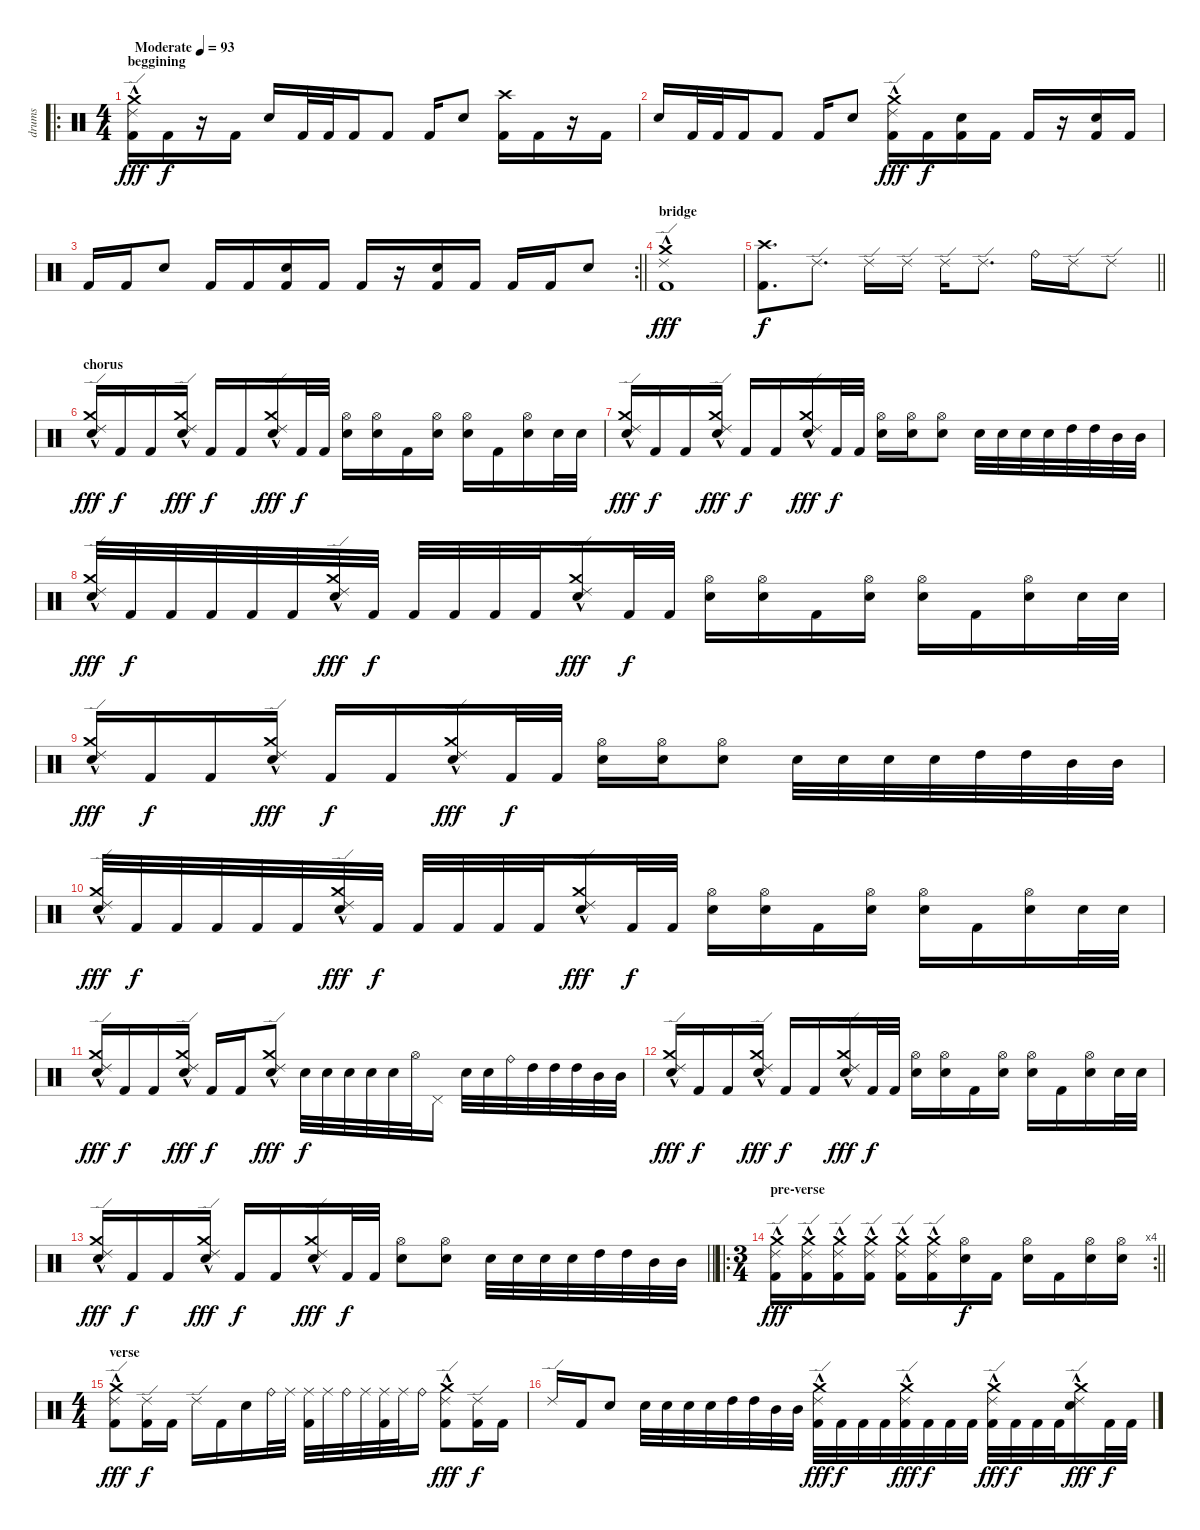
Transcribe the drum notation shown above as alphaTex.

\track ("drums" "drums") {instrument percussion}
\staff {score}
\articulation defaults
\ro
\ts (4 4)
\section ("" "beggining")
\tempo (93 "Moderate")
\clef neutral
\ks c
("Kick (hit) 2" "Ride (edge) 2"{hac} "Crash medium (hit)").16{dy fff} "Kick (hit) 2".16{dy f} r.16 "Kick (hit) 2".16 "Electric Snare (hit)".16 "Kick (hit) 2".32 "Kick (hit) 2".32 "Kick (hit) 2".16 "Kick (hit) 2".8 "Kick (hit) 2".16 "Electric Snare (hit)".8 ("Kick (hit) 2" "Crash high (hit)").16 "Kick (hit) 2".16 r.16 "Kick (hit) 2".16 |
"Electric Snare (hit)".16 "Kick (hit) 2".32 "Kick (hit) 2".32 "Kick (hit) 2".16 "Kick (hit) 2".8 "Kick (hit) 2".16 "Electric Snare (hit)".8 ("Kick (hit) 2" "Ride (edge) 2"{hac} "Crash medium (hit)").16{dy fff} "Kick (hit) 2".16{dy f} ("Kick (hit) 2" "Electric Snare (hit)").16 "Kick (hit) 2".16 "Kick (hit) 2".16 r.16 ("Kick (hit) 2" "Electric Snare (hit)").16 "Kick (hit) 2".16 |
\rc 2
\barLineRight lightlight "Kick (hit) 2".16 "Kick (hit) 2".16 "Electric Snare (hit)".8 "Kick (hit) 2".16 "Kick (hit) 2".16
("Kick (hit) 2" "Electric Snare (hit)").16 "Kick (hit) 2".16 "Kick (hit) 2".16 r.16 ("Kick (hit) 2" "Electric Snare (hit)").16 "Kick (hit) 2".16 "Kick (hit) 2".16 "Kick (hit) 2".16 "Electric Snare (hit)".8 |
\section ("" "bridge")
("Kick (hit) 2" "Ride (edge) 2"{hac} "Crash medium (hit)").1{dy fff} |
\barLineRight lightlight
("Kick (hit) 2" "Crash high (hit)").8{d dy f} "Ride (edge) 2".8{d} "Ride (edge) 2".16 "Ride (edge) 2".16 "Ride (edge) 2".16 "Ride (edge) 2".8{d} "Ride (bell)".16 "Ride (edge) 2".16 "Ride (edge) 2".8 |
\section ("" "chorus")
("Electric Snare (hit)" "Ride (edge) 2"{hac} "Crash medium (hit)").16{dy fff} "Kick (hit) 2".16{dy f} "Kick (hit) 2".16 ("Electric Snare (hit)" "Ride (edge) 2"{hac} "Crash medium (hit)").16{dy fff} "Kick (hit) 2".16{dy f} "Kick (hit) 2".16 ("Electric Snare (hit)" "Ride (edge) 2"{hac} "Crash medium (hit)").16{dy fff} "Kick (hit) 2".32{dy f} "Kick (hit) 2".32 ("Electric Snare (hit)" "Hi-Hat (open)").16 ("Electric Snare (hit)" "Hi-Hat (open)").16 "Kick (hit) 2".16 ("Electric Snare (hit)" "Hi-Hat (open)").16 ("Electric Snare (hit)" "Hi-Hat (open)").16 "Kick (hit) 2".16 ("Electric Snare (hit)" "Hi-Hat (open)").16 "Electric Snare (hit)".32 "Electric Snare (hit)".32 |
("Electric Snare (hit)" "Ride (edge) 2"{hac} "Crash medium (hit)").16{dy fff} "Kick (hit) 2".16{dy f} "Kick (hit) 2".16 ("Electric Snare (hit)" "Ride (edge) 2"{hac} "Crash medium (hit)").16{dy fff} "Kick (hit) 2".16{dy f} "Kick (hit) 2".16 ("Electric Snare (hit)" "Ride (edge) 2"{hac} "Crash medium (hit)").16{dy fff} "Kick (hit) 2".32{dy f} "Kick (hit) 2".32 ("Electric Snare (hit)" "Hi-Hat (open)").16 ("Electric Snare (hit)" "Hi-Hat (open)").16 ("Electric Snare (hit)" "Hi-Hat (open)").8 "Electric Snare (hit)".32 "Electric Snare (hit)".32 "Electric Snare (hit)".32 "Electric Snare (hit)".32 "High Tom (hit)".32 "High Tom (hit)".32 "Mid Tom (hit)".32 "Mid Tom (hit)".32 |
("Electric Snare (hit)" "Ride (edge) 2"{hac} "Crash medium (hit)").32{dy fff} "Kick (hit) 2".32{dy f} "Kick (hit) 2".32 "Kick (hit) 2".32 "Kick (hit) 2".32 "Kick (hit) 2".32 ("Electric Snare (hit)" "Ride (edge) 2"{hac} "Crash medium (hit)").32{dy fff} "Kick (hit) 2".32{dy f} "Kick (hit) 2".32 "Kick (hit) 2".32 "Kick (hit) 2".32 "Kick (hit) 2".32 ("Electric Snare (hit)" "Ride (edge) 2"{hac} "Crash medium (hit)").16{dy fff} "Kick (hit) 2".32{dy f} "Kick (hit) 2".32 ("Electric Snare (hit)" "Hi-Hat (open)").16 ("Electric Snare (hit)" "Hi-Hat (open)").16 "Kick (hit) 2".16 ("Electric Snare (hit)" "Hi-Hat (open)").16 ("Electric Snare (hit)" "Hi-Hat (open)").16 "Kick (hit) 2".16 ("Electric Snare (hit)" "Hi-Hat (open)").16 "Electric Snare (hit)".32 "Electric Snare (hit)".32 |
("Electric Snare (hit)" "Ride (edge) 2"{hac} "Crash medium (hit)").16{dy fff} "Kick (hit) 2".16{dy f} "Kick (hit) 2".16 ("Electric Snare (hit)" "Ride (edge) 2"{hac} "Crash medium (hit)").16{dy fff} "Kick (hit) 2".16{dy f} "Kick (hit) 2".16 ("Electric Snare (hit)" "Ride (edge) 2"{hac} "Crash medium (hit)").16{dy fff} "Kick (hit) 2".32{dy f} "Kick (hit) 2".32 ("Electric Snare (hit)" "Hi-Hat (open)").16 ("Electric Snare (hit)" "Hi-Hat (open)").16 ("Electric Snare (hit)" "Hi-Hat (open)").8 "Electric Snare (hit)".32 "Electric Snare (hit)".32 "Electric Snare (hit)".32 "Electric Snare (hit)".32 "High Tom (hit)".32 "High Tom (hit)".32 "Mid Tom (hit)".32 "Mid Tom (hit)".32 |
("Electric Snare (hit)" "Ride (edge) 2"{hac} "Crash medium (hit)").32{dy fff} "Kick (hit) 2".32{dy f} "Kick (hit) 2".32 "Kick (hit) 2".32 "Kick (hit) 2".32 "Kick (hit) 2".32 ("Electric Snare (hit)" "Ride (edge) 2"{hac} "Crash medium (hit)").32{dy fff} "Kick (hit) 2".32{dy f} "Kick (hit) 2".32 "Kick (hit) 2".32 "Kick (hit) 2".32 "Kick (hit) 2".32 ("Electric Snare (hit)" "Ride (edge) 2"{hac} "Crash medium (hit)").16{dy fff} "Kick (hit) 2".32{dy f} "Kick (hit) 2".32 ("Electric Snare (hit)" "Hi-Hat (open)").16 ("Electric Snare (hit)" "Hi-Hat (open)").16 "Kick (hit) 2".16 ("Electric Snare (hit)" "Hi-Hat (open)").16 ("Electric Snare (hit)" "Hi-Hat (open)").16 "Kick (hit) 2".16 ("Electric Snare (hit)" "Hi-Hat (open)").16 "Electric Snare (hit)".32 "Electric Snare (hit)".32 |
("Electric Snare (hit)" "Ride (edge) 2"{hac} "Crash medium (hit)").16{dy fff} "Kick (hit) 2".16{dy f} "Kick (hit) 2".16 ("Electric Snare (hit)" "Ride (edge) 2"{hac} "Crash medium (hit)").16{dy fff} "Kick (hit) 2".16{dy f} "Kick (hit) 2".16 ("Electric Snare (hit)" "Ride (edge) 2"{hac} "Crash medium (hit)").8{dy fff} "Electric Snare (hit)".32{dy f} "Electric Snare (hit)".32 "Electric Snare (hit)".32 "Electric Snare (hit)".32 "Electric Snare (hit)".32 "Hi-Hat (open)".32 "Pedal Hi-Hat (hit)".16 "Electric Snare (hit)".32 "Electric Snare (hit)".32 "Ride (bell)".32 "High Tom (hit)".32 "High Tom (hit)".32 "High Tom (hit)".32 "Mid Tom (hit)".32 "Mid Tom (hit)".32 |
("Electric Snare (hit)" "Ride (edge) 2"{hac} "Crash medium (hit)").16{dy fff} "Kick (hit) 2".16{dy f} "Kick (hit) 2".16 ("Electric Snare (hit)" "Ride (edge) 2"{hac} "Crash medium (hit)").16{dy fff} "Kick (hit) 2".16{dy f} "Kick (hit) 2".16 ("Electric Snare (hit)" "Ride (edge) 2"{hac} "Crash medium (hit)").16{dy fff} "Kick (hit) 2".32{dy f} "Kick (hit) 2".32 ("Electric Snare (hit)" "Hi-Hat (open)").16 ("Electric Snare (hit)" "Hi-Hat (open)").16 "Kick (hit) 2".16 ("Electric Snare (hit)" "Hi-Hat (open)").16 ("Electric Snare (hit)" "Hi-Hat (open)").16 "Kick (hit) 2".16 ("Electric Snare (hit)" "Hi-Hat (open)").16 "Electric Snare (hit)".32 "Electric Snare (hit)".32 |
\barLineRight lightlight
("Electric Snare (hit)" "Ride (edge) 2"{hac} "Crash medium (hit)").16{dy fff} "Kick (hit) 2".16{dy f} "Kick (hit) 2".16 ("Electric Snare (hit)" "Ride (edge) 2"{hac} "Crash medium (hit)").16{dy fff} "Kick (hit) 2".16{dy f} "Kick (hit) 2".16 ("Electric Snare (hit)" "Ride (edge) 2"{hac} "Crash medium (hit)").16{dy fff} "Kick (hit) 2".32{dy f} "Kick (hit) 2".32 ("Electric Snare (hit)" "Hi-Hat (open)").8 ("Electric Snare (hit)" "Hi-Hat (open)").8 "Electric Snare (hit)".32 "Electric Snare (hit)".32 "Electric Snare (hit)".32 "Electric Snare (hit)".32 "High Tom (hit)".32 "High Tom (hit)".32 "Mid Tom (hit)".32 "Mid Tom (hit)".32 |
\ro
\rc 4
\ts (3 4)
\section ("" "pre-verse")
\barLineRight lightlight
("Kick (hit) 2" "Ride (edge) 2"{hac} "Crash medium (hit)").16{dy fff} ("Kick (hit) 2" "Ride (edge) 2"{hac} "Crash medium (hit)").16 ("Kick (hit) 2" "Ride (edge) 2"{hac} "Crash medium (hit)").16 ("Kick (hit) 2" "Ride (edge) 2"{hac} "Crash medium (hit)").16 ("Kick (hit) 2" "Ride (edge) 2"{hac} "Crash medium (hit)").16 ("Kick (hit) 2" "Ride (edge) 2"{hac} "Crash medium (hit)").16 ("Electric Snare (hit)" "Hi-Hat (open)").16{dy f} "Kick (hit) 2".16 ("Electric Snare (hit)" "Hi-Hat (open)").16 "Kick (hit) 2".16 ("Electric Snare (hit)" "Hi-Hat (open)").16 ("Electric Snare (hit)" "Hi-Hat (open)").16 |
\ts (4 4)
\section ("" "verse")
("Kick (hit) 2" "Ride (edge) 2"{hac} "Crash medium (hit)").8{dy fff} ("Kick (hit) 2" "Ride (edge) 2").16{dy f} "Kick (hit) 2".16 "Ride (edge) 2".16 "Kick (hit) 2".16 "Electric Snare (hit)".16 "Ride (bell)".32 "Ride (middle)".32 ("Kick (hit) 2" "Ride (middle)").32 "Ride (middle)".32 "Ride (bell)".32 "Ride (middle)".32 ("Kick (hit) 2" "Ride (middle)").32 "Ride (middle)".32 "Ride (bell)".16 ("Kick (hit) 2" "Ride (edge) 2"{hac} "Crash medium (hit)").8{dy fff} ("Kick (hit) 2" "Ride (edge) 2").16{dy f} "Kick (hit) 2".16 |
"Ride (edge) 2".16 "Kick (hit) 2".16 "Electric Snare (hit)".8 "Electric Snare (hit)".32 "Electric Snare (hit)".32 "Electric Snare (hit)".32 "Electric Snare (hit)".32 "High Tom (hit)".32 "High Tom (hit)".32 "Mid Tom (hit)".32 "Mid Tom (hit)".32 ("Kick (hit) 2" "Ride (edge) 2"{hac} "Crash medium (hit)").32{dy fff} "Kick (hit) 2".32{dy f} "Kick (hit) 2".32 "Kick (hit) 2".32 ("Kick (hit) 2" "Ride (edge) 2"{hac} "Crash medium (hit)").32{dy fff} "Kick (hit) 2".32{dy f} "Kick (hit) 2".32 "Kick (hit) 2".32 ("Kick (hit) 2" "Ride (edge) 2"{hac} "Crash medium (hit)").32{dy fff} "Kick (hit) 2".32{dy f} "Kick (hit) 2".32 "Kick (hit) 2".32 ("Electric Snare (hit)" "Ride (edge) 2"{hac} "Crash medium (hit)").16{dy fff} "Kick (hit) 2".32{dy f} "Kick (hit) 2".32
